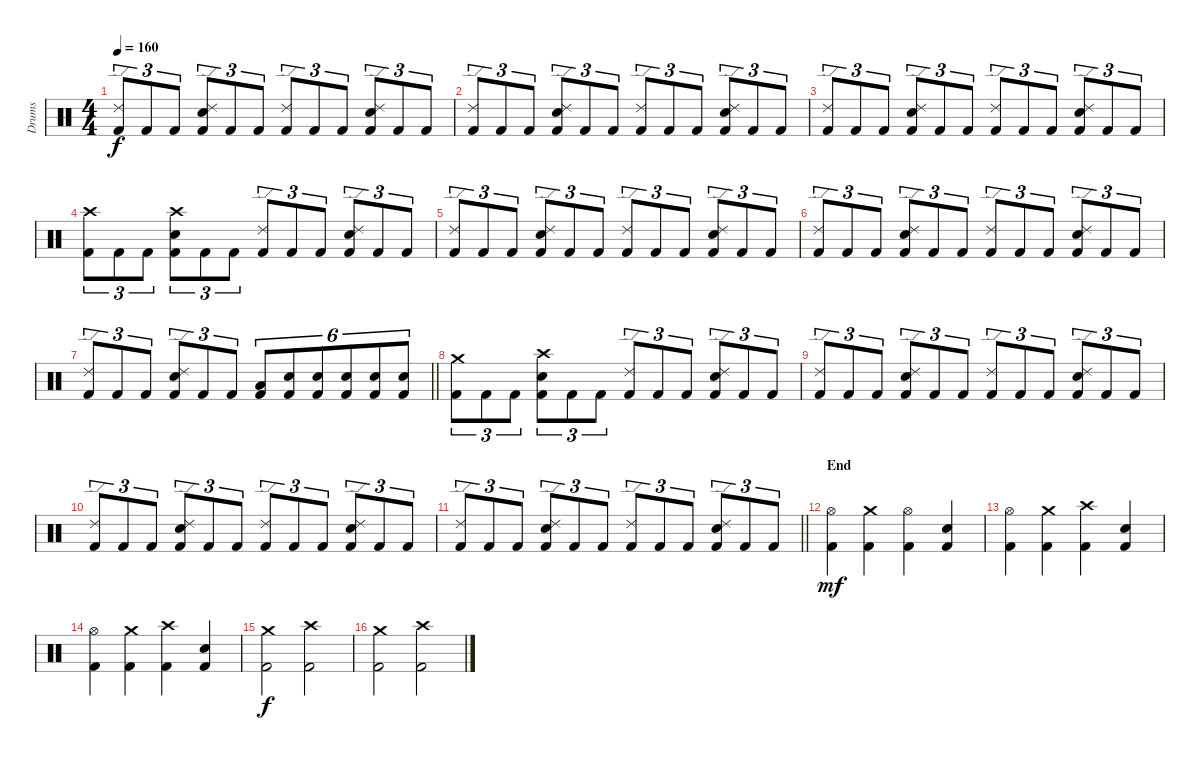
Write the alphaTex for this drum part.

\track ("Drums" "Drums") {instrument percussion}
\staff {score}
\articulation defaults
\ts (4 4)
\tempo 160
\clef neutral
\ks aminor
("Ride (edge) 2" "Kick (hit) 2").8{tu (3 2) dy f} "Kick (hit) 2".8{tu (3 2)} "Kick (hit) 2".8{tu (3 2)} ("Ride (edge) 2" "Snare (hit) 2" "Kick (hit) 2").8{tu (3 2)} "Kick (hit) 2".8{tu (3 2)} "Kick (hit) 2".8{tu (3 2)} ("Ride (edge) 2" "Kick (hit) 2").8{tu (3 2)} "Kick (hit) 2".8{tu (3 2)} "Kick (hit) 2".8{tu (3 2)} ("Ride (edge) 2" "Snare (hit) 2" "Kick (hit) 2").8{tu (3 2)} "Kick (hit) 2".8{tu (3 2)} "Kick (hit) 2".8{tu (3 2)} |
("Ride (edge) 2" "Kick (hit) 2").8{tu (3 2)} "Kick (hit) 2".8{tu (3 2)} "Kick (hit) 2".8{tu (3 2)} ("Ride (edge) 2" "Snare (hit) 2" "Kick (hit) 2").8{tu (3 2)} "Kick (hit) 2".8{tu (3 2)} "Kick (hit) 2".8{tu (3 2)} ("Ride (edge) 2" "Kick (hit) 2").8{tu (3 2)} "Kick (hit) 2".8{tu (3 2)} "Kick (hit) 2".8{tu (3 2)} ("Ride (edge) 2" "Snare (hit) 2" "Kick (hit) 2").8{tu (3 2)} "Kick (hit) 2".8{tu (3 2)} "Kick (hit) 2".8{tu (3 2)} |
("Ride (edge) 2" "Kick (hit) 2").8{tu (3 2)} "Kick (hit) 2".8{tu (3 2)} "Kick (hit) 2".8{tu (3 2)} ("Ride (edge) 2" "Snare (hit) 2" "Kick (hit) 2").8{tu (3 2)} "Kick (hit) 2".8{tu (3 2)} "Kick (hit) 2".8{tu (3 2)} ("Ride (edge) 2" "Kick (hit) 2").8{tu (3 2)} "Kick (hit) 2".8{tu (3 2)} "Kick (hit) 2".8{tu (3 2)} ("Ride (edge) 2" "Snare (hit) 2" "Kick (hit) 2").8{tu (3 2)} "Kick (hit) 2".8{tu (3 2)} "Kick (hit) 2".8{tu (3 2)} |
("Crash high (hit)" "Kick (hit) 2").8{tu (3 2)} "Kick (hit) 2".8{tu (3 2)} "Kick (hit) 2".8{tu (3 2)} ("Crash high (hit)" "Snare (hit) 2" "Kick (hit) 2").8{tu (3 2)} "Kick (hit) 2".8{tu (3 2)} "Kick (hit) 2".8{tu (3 2)} ("Ride (edge) 2" "Kick (hit) 2").8{tu (3 2)} "Kick (hit) 2".8{tu (3 2)} "Kick (hit) 2".8{tu (3 2)} ("Ride (edge) 2" "Snare (hit) 2" "Kick (hit) 2").8{tu (3 2)} "Kick (hit) 2".8{tu (3 2)} "Kick (hit) 2".8{tu (3 2)} |
("Ride (edge) 2" "Kick (hit) 2").8{tu (3 2)} "Kick (hit) 2".8{tu (3 2)} "Kick (hit) 2".8{tu (3 2)} ("Ride (edge) 2" "Snare (hit) 2" "Kick (hit) 2").8{tu (3 2)} "Kick (hit) 2".8{tu (3 2)} "Kick (hit) 2".8{tu (3 2)} ("Ride (edge) 2" "Kick (hit) 2").8{tu (3 2)} "Kick (hit) 2".8{tu (3 2)} "Kick (hit) 2".8{tu (3 2)} ("Ride (edge) 2" "Snare (hit) 2" "Kick (hit) 2").8{tu (3 2)} "Kick (hit) 2".8{tu (3 2)} "Kick (hit) 2".8{tu (3 2)} |
("Ride (edge) 2" "Kick (hit) 2").8{tu (3 2)} "Kick (hit) 2".8{tu (3 2)} "Kick (hit) 2".8{tu (3 2)} ("Ride (edge) 2" "Snare (hit) 2" "Kick (hit) 2").8{tu (3 2)} "Kick (hit) 2".8{tu (3 2)} "Kick (hit) 2".8{tu (3 2)} ("Ride (edge) 2" "Kick (hit) 2").8{tu (3 2)} "Kick (hit) 2".8{tu (3 2)} "Kick (hit) 2".8{tu (3 2)} ("Ride (edge) 2" "Snare (hit) 2" "Kick (hit) 2").8{tu (3 2)} "Kick (hit) 2".8{tu (3 2)} "Kick (hit) 2".8{tu (3 2)} |
\barLineRight lightlight
("Ride (edge) 2" "Kick (hit) 2").8{tu (3 2)} "Kick (hit) 2".8{tu (3 2)} "Kick (hit) 2".8{tu (3 2)} ("Ride (edge) 2" "Snare (hit) 2" "Kick (hit) 2").8{tu (3 2)} "Kick (hit) 2".8{tu (3 2)} "Kick (hit) 2".8{tu (3 2)} ("Low Tom (hit)" "Kick (hit) 2").8{tu (6 4)} ("Snare (hit) 2" "Kick (hit) 2").8{tu (6 4)} ("Snare (hit) 2" "Kick (hit) 2").8{tu (6 4)} ("Snare (hit) 2" "Kick (hit) 2").8{tu (6 4)} ("Snare (hit) 2" "Kick (hit) 2").8{tu (6 4)} ("Snare (hit) 2" "Kick (hit) 2").8{tu (6 4)} |
\section ("" "")
("Crash medium (hit)" "Kick (hit) 2").8{tu (3 2)} "Kick (hit) 2".8{tu (3 2)} "Kick (hit) 2".8{tu (3 2)} ("Crash high (hit)" "Snare (hit) 2" "Kick (hit) 2").8{tu (3 2)} "Kick (hit) 2".8{tu (3 2)} "Kick (hit) 2".8{tu (3 2)} ("Ride (edge) 2" "Kick (hit) 2").8{tu (3 2)} "Kick (hit) 2".8{tu (3 2)} "Kick (hit) 2".8{tu (3 2)} ("Ride (edge) 2" "Snare (hit) 2" "Kick (hit) 2").8{tu (3 2)} "Kick (hit) 2".8{tu (3 2)} "Kick (hit) 2".8{tu (3 2)} |
("Ride (edge) 2" "Kick (hit) 2").8{tu (3 2)} "Kick (hit) 2".8{tu (3 2)} "Kick (hit) 2".8{tu (3 2)} ("Ride (edge) 2" "Snare (hit) 2" "Kick (hit) 2").8{tu (3 2)} "Kick (hit) 2".8{tu (3 2)} "Kick (hit) 2".8{tu (3 2)} ("Ride (edge) 2" "Kick (hit) 2").8{tu (3 2)} "Kick (hit) 2".8{tu (3 2)} "Kick (hit) 2".8{tu (3 2)} ("Ride (edge) 2" "Snare (hit) 2" "Kick (hit) 2").8{tu (3 2)} "Kick (hit) 2".8{tu (3 2)} "Kick (hit) 2".8{tu (3 2)} |
("Ride (edge) 2" "Kick (hit) 2").8{tu (3 2)} "Kick (hit) 2".8{tu (3 2)} "Kick (hit) 2".8{tu (3 2)} ("Ride (edge) 2" "Snare (hit) 2" "Kick (hit) 2").8{tu (3 2)} "Kick (hit) 2".8{tu (3 2)} "Kick (hit) 2".8{tu (3 2)} ("Ride (edge) 2" "Kick (hit) 2").8{tu (3 2)} "Kick (hit) 2".8{tu (3 2)} "Kick (hit) 2".8{tu (3 2)} ("Ride (edge) 2" "Snare (hit) 2" "Kick (hit) 2").8{tu (3 2)} "Kick (hit) 2".8{tu (3 2)} "Kick (hit) 2".8{tu (3 2)} |
\barLineRight lightlight
("Ride (edge) 2" "Kick (hit) 2").8{tu (3 2)} "Kick (hit) 2".8{tu (3 2)} "Kick (hit) 2".8{tu (3 2)} ("Ride (edge) 2" "Snare (hit) 2" "Kick (hit) 2").8{tu (3 2)} "Kick (hit) 2".8{tu (3 2)} "Kick (hit) 2".8{tu (3 2)} ("Ride (edge) 2" "Kick (hit) 2").8{tu (3 2)} "Kick (hit) 2".8{tu (3 2)} "Kick (hit) 2".8{tu (3 2)} ("Ride (edge) 2" "Snare (hit) 2" "Kick (hit) 2").8{tu (3 2)} "Kick (hit) 2".8{tu (3 2)} "Kick (hit) 2".8{tu (3 2)} |
\section ("" "End")
("Hi-Hat (open)" "Kick (hit) 2").4{dy mf} ("Crash medium (hit)" "Kick (hit) 2").4 ("Hi-Hat (open)" "Kick (hit) 2").4 ("Snare (hit) 2" "Kick (hit) 2").4 |
("Hi-Hat (open)" "Kick (hit) 2").4 ("Crash medium (hit)" "Kick (hit) 2").4 ("Crash high (hit)" "Kick (hit) 2").4 ("Snare (hit) 2" "Kick (hit) 2").4 |
("Hi-Hat (open)" "Kick (hit) 2").4 ("Crash medium (hit)" "Kick (hit) 2").4 ("Crash high (hit)" "Kick (hit) 2").4 ("Snare (hit) 2" "Kick (hit) 2").4 |
("Crash medium (hit)" "Kick (hit) 2").2{dy f} ("Crash high (hit)" "Kick (hit) 2").2 |
("Crash medium (hit)" "Kick (hit) 2").2 ("Crash high (hit)" "Kick (hit) 2").2
